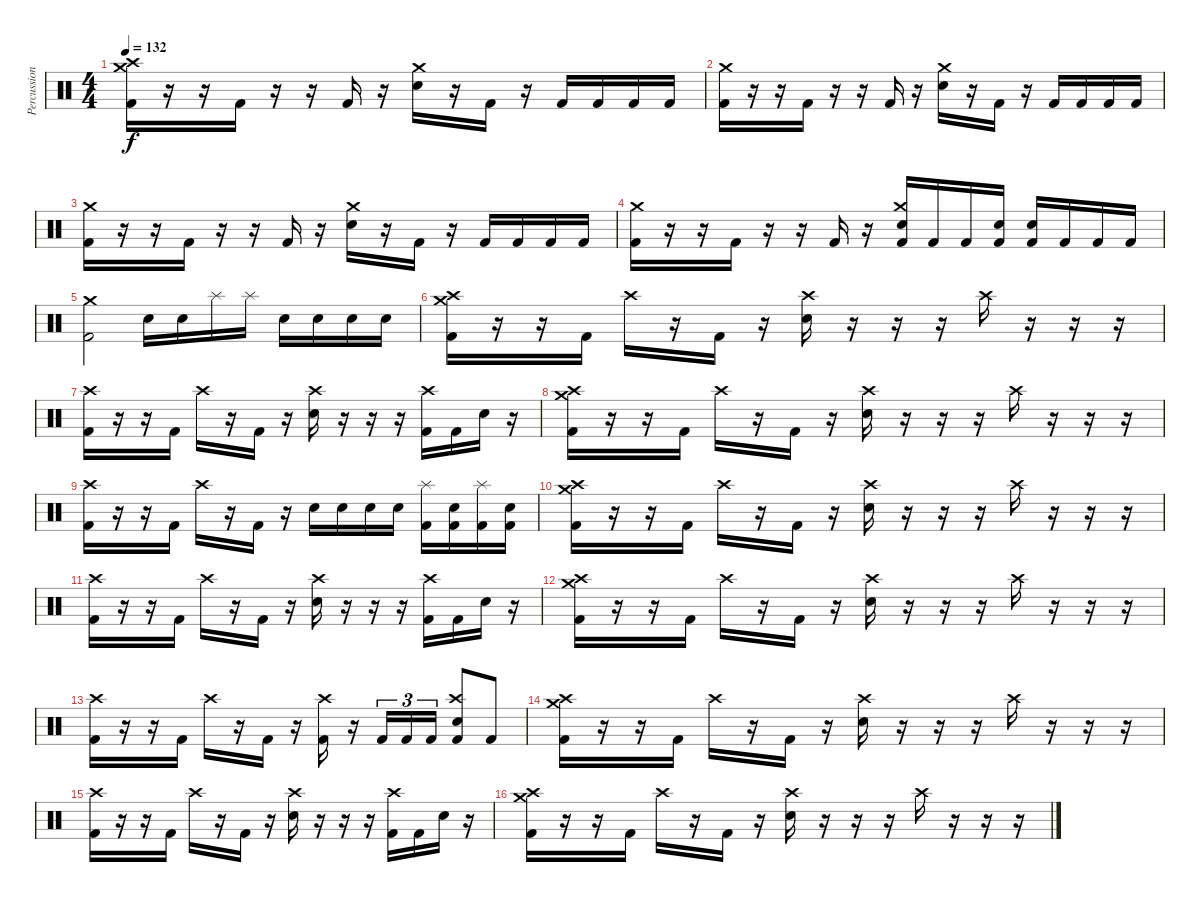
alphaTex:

\track ("Percussion" "Percussion") {instrument percussion}
\staff {score}
\articulation defaults
\ts (4 4)
\tempo 132
\clef neutral
\ks c
("Kick (hit) 2" "Crash high (hit)" "Crash medium (hit)").16{dy f} r.16 r.16 "Kick (hit) 2".16 r.16 r.16 "Kick (hit) 2".16 r.16 ("Snare (hit) 2" "Crash medium (hit)").16 r.16 "Kick (hit) 2".16 r.16 "Kick (hit) 2".16 "Kick (hit) 2".16 "Kick (hit) 2".16 "Kick (hit) 2".16 |
("Kick (hit) 2" "Crash medium (hit)").16 r.16 r.16 "Kick (hit) 2".16 r.16 r.16 "Kick (hit) 2".16 r.16 ("Snare (hit) 2" "Crash medium (hit)").16 r.16 "Kick (hit) 2".16 r.16 "Kick (hit) 2".16 "Kick (hit) 2".16 "Kick (hit) 2".16 "Kick (hit) 2".16 |
("Kick (hit) 2" "Crash medium (hit)").16 r.16 r.16 "Kick (hit) 2".16 r.16 r.16 "Kick (hit) 2".16 r.16 ("Snare (hit) 2" "Crash medium (hit)").16 r.16 "Kick (hit) 2".16 r.16 "Kick (hit) 2".16 "Kick (hit) 2".16 "Kick (hit) 2".16 "Kick (hit) 2".16 |
("Kick (hit) 2" "Crash medium (hit)").16 r.16 r.16 "Kick (hit) 2".16 r.16 r.16 "Kick (hit) 2".16 r.16 ("Kick (hit) 2" "Snare (hit) 2" "Crash medium (hit)").16 "Kick (hit) 2".16 "Kick (hit) 2".16 ("Kick (hit) 2" "Snare (hit) 2").16 ("Kick (hit) 2" "Snare (hit) 2").16 "Kick (hit) 2".16 "Kick (hit) 2".16 "Kick (hit) 2".16 |
("Kick (hit) 2" "Crash medium (hit)").2 "Snare (hit) 2".16 "Snare (hit) 2".16 "Splash (hit)".16 "Splash (hit)".16 "Snare (hit) 2".16 "Snare (hit) 2".16 "Snare (hit) 2".16 "Snare (hit) 2".16 |
("Kick (hit) 2" "Crash medium (hit)" "Crash high (hit)").16 r.16 r.16 "Kick (hit) 2".16 "Crash high (hit)".16 r.16 "Kick (hit) 2".16 r.16 ("Snare (hit) 2" "Crash high (hit)").16 r.16 r.16 r.16 "Crash high (hit)".16 r.16 r.16 r.16 |
("Kick (hit) 2" "Crash high (hit)").16 r.16 r.16 "Kick (hit) 2".16 "Crash high (hit)".16 r.16 "Kick (hit) 2".16 r.16 ("Snare (hit) 2" "Crash high (hit)").16 r.16 r.16 r.16 ("Kick (hit) 2" "Crash high (hit)").16 "Kick (hit) 2".16 "Snare (hit) 2".16 r.16 |
("Kick (hit) 2" "Crash medium (hit)" "Crash high (hit)").16 r.16 r.16 "Kick (hit) 2".16 "Crash high (hit)".16 r.16 "Kick (hit) 2".16 r.16 ("Snare (hit) 2" "Crash high (hit)").16 r.16 r.16 r.16 "Crash high (hit)".16 r.16 r.16 r.16 |
("Kick (hit) 2" "Crash high (hit)").16 r.16 r.16 "Kick (hit) 2".16 "Crash high (hit)".16 r.16 "Kick (hit) 2".16 r.16 "Snare (hit) 2".16 "Snare (hit) 2".16 "Snare (hit) 2".16 "Snare (hit) 2".16 ("Kick (hit) 2" "Splash (hit)").16 ("Kick (hit) 2" "Snare (hit) 2").16 ("Kick (hit) 2" "Splash (hit)").16 ("Kick (hit) 2" "Snare (hit) 2").16 |
("Kick (hit) 2" "Crash medium (hit)" "Crash high (hit)").16 r.16 r.16 "Kick (hit) 2".16 "Crash high (hit)".16 r.16 "Kick (hit) 2".16 r.16 ("Snare (hit) 2" "Crash high (hit)").16 r.16 r.16 r.16 "Crash high (hit)".16 r.16 r.16 r.16 |
("Kick (hit) 2" "Crash high (hit)").16 r.16 r.16 "Kick (hit) 2".16 "Crash high (hit)".16 r.16 "Kick (hit) 2".16 r.16 ("Snare (hit) 2" "Crash high (hit)").16 r.16 r.16 r.16 ("Kick (hit) 2" "Crash high (hit)").16 "Kick (hit) 2".16 "Snare (hit) 2".16 r.16 |
("Kick (hit) 2" "Crash medium (hit)" "Crash high (hit)").16 r.16 r.16 "Kick (hit) 2".16 "Crash high (hit)".16 r.16 "Kick (hit) 2".16 r.16 ("Snare (hit) 2" "Crash high (hit)").16 r.16 r.16 r.16 "Crash high (hit)".16 r.16 r.16 r.16 |
("Kick (hit) 2" "Crash high (hit)").16 r.16 r.16 "Kick (hit) 2".16 "Crash high (hit)".16 r.16 "Kick (hit) 2".16 r.16 ("Kick (hit) 2" "Crash high (hit)").16 r.16 "Kick (hit) 2".16{tu (3 2)} "Kick (hit) 2".16{tu (3 2)} "Kick (hit) 2".16{tu (3 2)} ("Kick (hit) 2" "Snare (hit) 2" "Crash high (hit)").8 "Kick (hit) 2".8 |
("Kick (hit) 2" "Crash medium (hit)" "Crash high (hit)").16 r.16 r.16 "Kick (hit) 2".16 "Crash high (hit)".16 r.16 "Kick (hit) 2".16 r.16 ("Snare (hit) 2" "Crash high (hit)").16 r.16 r.16 r.16 "Crash high (hit)".16 r.16 r.16 r.16 |
("Kick (hit) 2" "Crash high (hit)").16 r.16 r.16 "Kick (hit) 2".16 "Crash high (hit)".16 r.16 "Kick (hit) 2".16 r.16 ("Snare (hit) 2" "Crash high (hit)").16 r.16 r.16 r.16 ("Kick (hit) 2" "Crash high (hit)").16 "Kick (hit) 2".16 "Snare (hit) 2".16 r.16 |
("Kick (hit) 2" "Crash medium (hit)" "Crash high (hit)").16 r.16 r.16 "Kick (hit) 2".16 "Crash high (hit)".16 r.16 "Kick (hit) 2".16 r.16 ("Snare (hit) 2" "Crash high (hit)").16 r.16 r.16 r.16 "Crash high (hit)".16 r.16 r.16 r.16
